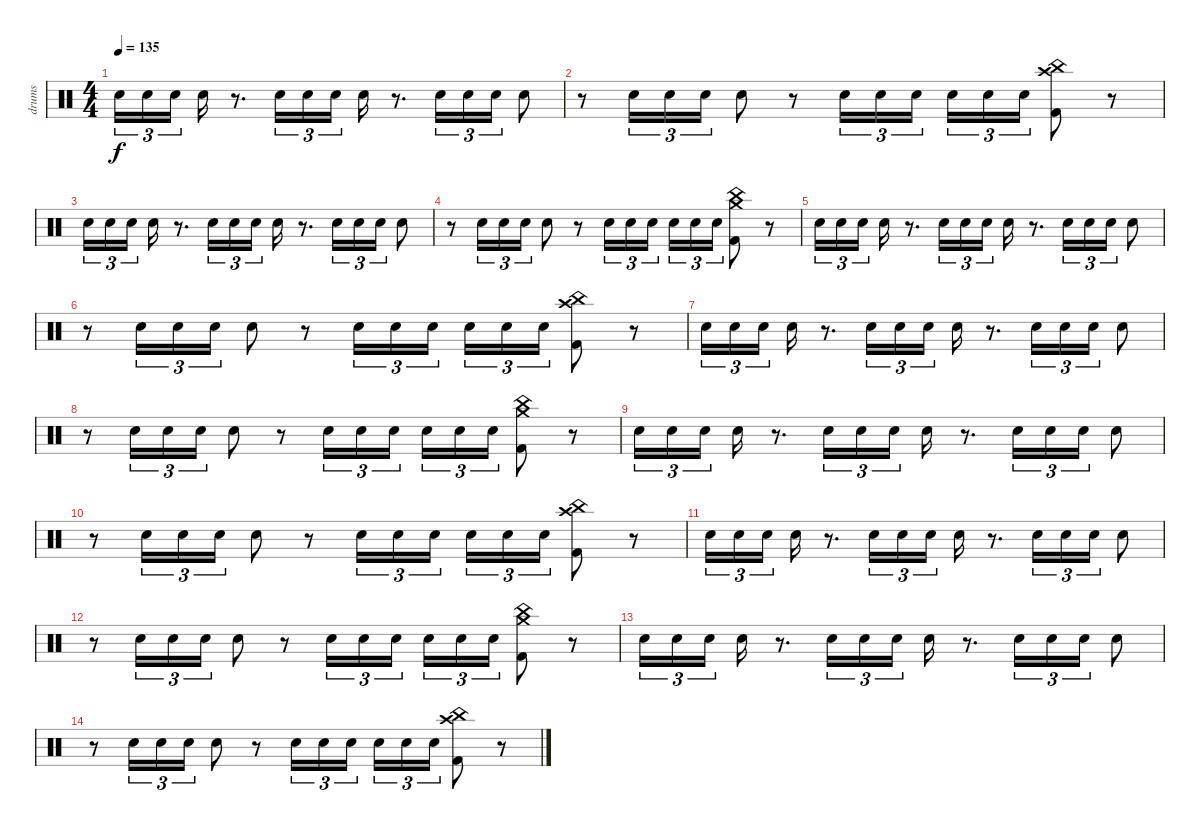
\track ("drums" "drums") {instrument percussion}
\staff {score}
\articulation defaults
\ts (4 4)
\tempo 135
\clef neutral
\ks c "Electric Snare (hit)".16{tu (3 2) dy f} "Electric Snare (hit)".16{tu (3 2)} "Electric Snare (hit)".16{tu (3 2) beam splitsecondary} "Electric Snare (hit)".16
r.8{d} "Electric Snare (hit)".16{tu (3 2)} "Electric Snare (hit)".16{tu (3 2)} "Electric Snare (hit)".16{tu (3 2)} "Electric Snare (hit)".16 r.8{d} "Electric Snare (hit)".16{tu (3 2)} "Electric Snare (hit)".16{tu (3 2)} "Electric Snare (hit)".16{tu (3 2)} "Electric Snare (hit)".8 |
r.8 "Electric Snare (hit)".16{tu (3 2)} "Electric Snare (hit)".16{tu (3 2)} "Electric Snare (hit)".16{tu (3 2)} "Electric Snare (hit)".8 r.8 "Electric Snare (hit)".16{tu (3 2)} "Electric Snare (hit)".16{tu (3 2)} "Electric Snare (hit)".16{tu (3 2) beam splitsecondary} "Electric Snare (hit)".16{tu (3 2)} "Electric Snare (hit)".16{tu (3 2)} "Electric Snare (hit)".16{tu (3 2)} ("Crash high (hit)" "China (hit)" "Kick (hit) 2").8 r.8 |
"Electric Snare (hit)".16{tu (3 2)} "Electric Snare (hit)".16{tu (3 2)} "Electric Snare (hit)".16{tu (3 2) beam splitsecondary} "Electric Snare (hit)".16 r.8{d} "Electric Snare (hit)".16{tu (3 2)} "Electric Snare (hit)".16{tu (3 2)} "Electric Snare (hit)".16{tu (3 2)} "Electric Snare (hit)".16 r.8{d} "Electric Snare (hit)".16{tu (3 2)} "Electric Snare (hit)".16{tu (3 2)} "Electric Snare (hit)".16{tu (3 2)} "Electric Snare (hit)".8 |
r.8 "Electric Snare (hit)".16{tu (3 2)} "Electric Snare (hit)".16{tu (3 2)} "Electric Snare (hit)".16{tu (3 2)} "Electric Snare (hit)".8 r.8 "Electric Snare (hit)".16{tu (3 2)} "Electric Snare (hit)".16{tu (3 2)} "Electric Snare (hit)".16{tu (3 2) beam splitsecondary} "Electric Snare (hit)".16{tu (3 2)} "Electric Snare (hit)".16{tu (3 2)} "Electric Snare (hit)".16{tu (3 2)} ("Crash medium (hit)" "China (hit)" "Kick (hit) 2").8 r.8 |
"Electric Snare (hit)".16{tu (3 2)} "Electric Snare (hit)".16{tu (3 2)} "Electric Snare (hit)".16{tu (3 2) beam splitsecondary} "Electric Snare (hit)".16 r.8{d} "Electric Snare (hit)".16{tu (3 2)} "Electric Snare (hit)".16{tu (3 2)} "Electric Snare (hit)".16{tu (3 2)} "Electric Snare (hit)".16 r.8{d} "Electric Snare (hit)".16{tu (3 2)} "Electric Snare (hit)".16{tu (3 2)} "Electric Snare (hit)".16{tu (3 2)} "Electric Snare (hit)".8 |
r.8 "Electric Snare (hit)".16{tu (3 2)} "Electric Snare (hit)".16{tu (3 2)} "Electric Snare (hit)".16{tu (3 2)} "Electric Snare (hit)".8 r.8 "Electric Snare (hit)".16{tu (3 2)} "Electric Snare (hit)".16{tu (3 2)} "Electric Snare (hit)".16{tu (3 2) beam splitsecondary} "Electric Snare (hit)".16{tu (3 2)} "Electric Snare (hit)".16{tu (3 2)} "Electric Snare (hit)".16{tu (3 2)} ("Crash high (hit)" "China (hit)" "Kick (hit) 2").8 r.8 |
"Electric Snare (hit)".16{tu (3 2)} "Electric Snare (hit)".16{tu (3 2)} "Electric Snare (hit)".16{tu (3 2) beam splitsecondary} "Electric Snare (hit)".16 r.8{d} "Electric Snare (hit)".16{tu (3 2)} "Electric Snare (hit)".16{tu (3 2)} "Electric Snare (hit)".16{tu (3 2)} "Electric Snare (hit)".16 r.8{d} "Electric Snare (hit)".16{tu (3 2)} "Electric Snare (hit)".16{tu (3 2)} "Electric Snare (hit)".16{tu (3 2)} "Electric Snare (hit)".8 |
r.8 "Electric Snare (hit)".16{tu (3 2)} "Electric Snare (hit)".16{tu (3 2)} "Electric Snare (hit)".16{tu (3 2)} "Electric Snare (hit)".8 r.8 "Electric Snare (hit)".16{tu (3 2)} "Electric Snare (hit)".16{tu (3 2)} "Electric Snare (hit)".16{tu (3 2) beam splitsecondary} "Electric Snare (hit)".16{tu (3 2)} "Electric Snare (hit)".16{tu (3 2)} "Electric Snare (hit)".16{tu (3 2)} ("Crash medium (hit)" "China (hit)" "Kick (hit) 2").8 r.8 |
"Electric Snare (hit)".16{tu (3 2)} "Electric Snare (hit)".16{tu (3 2)} "Electric Snare (hit)".16{tu (3 2) beam splitsecondary} "Electric Snare (hit)".16 r.8{d} "Electric Snare (hit)".16{tu (3 2)} "Electric Snare (hit)".16{tu (3 2)} "Electric Snare (hit)".16{tu (3 2)} "Electric Snare (hit)".16 r.8{d} "Electric Snare (hit)".16{tu (3 2)} "Electric Snare (hit)".16{tu (3 2)} "Electric Snare (hit)".16{tu (3 2)} "Electric Snare (hit)".8 |
r.8 "Electric Snare (hit)".16{tu (3 2)} "Electric Snare (hit)".16{tu (3 2)} "Electric Snare (hit)".16{tu (3 2)} "Electric Snare (hit)".8 r.8 "Electric Snare (hit)".16{tu (3 2)} "Electric Snare (hit)".16{tu (3 2)} "Electric Snare (hit)".16{tu (3 2) beam splitsecondary} "Electric Snare (hit)".16{tu (3 2)} "Electric Snare (hit)".16{tu (3 2)} "Electric Snare (hit)".16{tu (3 2)} ("Crash high (hit)" "China (hit)" "Kick (hit) 2").8 r.8 |
"Electric Snare (hit)".16{tu (3 2)} "Electric Snare (hit)".16{tu (3 2)} "Electric Snare (hit)".16{tu (3 2) beam splitsecondary} "Electric Snare (hit)".16 r.8{d} "Electric Snare (hit)".16{tu (3 2)} "Electric Snare (hit)".16{tu (3 2)} "Electric Snare (hit)".16{tu (3 2)} "Electric Snare (hit)".16 r.8{d} "Electric Snare (hit)".16{tu (3 2)} "Electric Snare (hit)".16{tu (3 2)} "Electric Snare (hit)".16{tu (3 2)} "Electric Snare (hit)".8 |
r.8 "Electric Snare (hit)".16{tu (3 2)} "Electric Snare (hit)".16{tu (3 2)} "Electric Snare (hit)".16{tu (3 2)} "Electric Snare (hit)".8 r.8 "Electric Snare (hit)".16{tu (3 2)} "Electric Snare (hit)".16{tu (3 2)} "Electric Snare (hit)".16{tu (3 2) beam splitsecondary} "Electric Snare (hit)".16{tu (3 2)} "Electric Snare (hit)".16{tu (3 2)} "Electric Snare (hit)".16{tu (3 2)} ("Crash medium (hit)" "China (hit)" "Kick (hit) 2").8 r.8 |
"Electric Snare (hit)".16{tu (3 2)} "Electric Snare (hit)".16{tu (3 2)} "Electric Snare (hit)".16{tu (3 2) beam splitsecondary} "Electric Snare (hit)".16 r.8{d} "Electric Snare (hit)".16{tu (3 2)} "Electric Snare (hit)".16{tu (3 2)} "Electric Snare (hit)".16{tu (3 2)} "Electric Snare (hit)".16 r.8{d} "Electric Snare (hit)".16{tu (3 2)} "Electric Snare (hit)".16{tu (3 2)} "Electric Snare (hit)".16{tu (3 2)} "Electric Snare (hit)".8 |
r.8 "Electric Snare (hit)".16{tu (3 2)} "Electric Snare (hit)".16{tu (3 2)} "Electric Snare (hit)".16{tu (3 2)} "Electric Snare (hit)".8 r.8 "Electric Snare (hit)".16{tu (3 2)} "Electric Snare (hit)".16{tu (3 2)} "Electric Snare (hit)".16{tu (3 2) beam splitsecondary} "Electric Snare (hit)".16{tu (3 2)} "Electric Snare (hit)".16{tu (3 2)} "Electric Snare (hit)".16{tu (3 2)} ("Crash high (hit)" "China (hit)" "Kick (hit) 2").8 r.8
